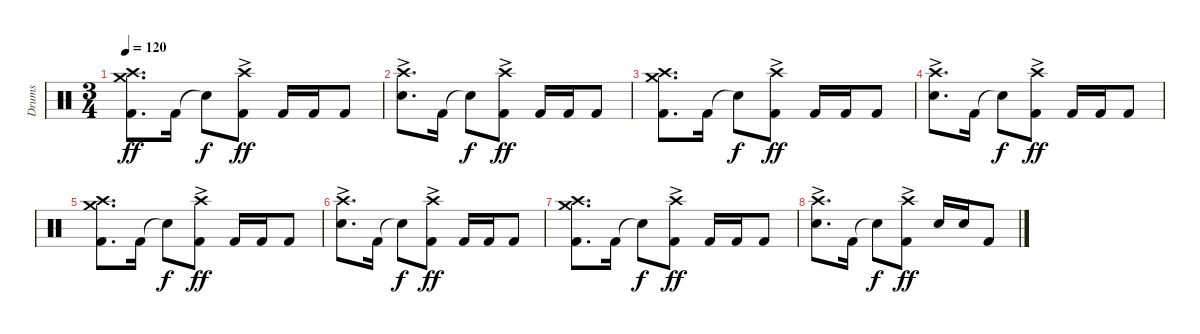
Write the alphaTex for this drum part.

\track ("Drums" "Drums") {instrument percussion}
\staff {score}
\articulation defaults
\ts (3 4)
\tempo 120
\clef neutral
\ks c
("Crash medium (hit)" "Crash high (hit)" "Kick (hit) 2").8{d dy ff} "Kick (hit) 2".16 "Snare (hit)"{t}.8{dy f} ("Crash high (hit)"{ac} "Kick (hit) 2").8{dy ff} "Kick (hit) 2".16 "Kick (hit) 2".16 "Kick (hit) 2".8 |
("Crash high (hit)"{ac} "Electric Snare (hit)").8{d} "Kick (hit) 2".16 "Snare (hit)"{t}.8{dy f} ("Crash high (hit)"{ac} "Kick (hit) 2").8{dy ff} "Kick (hit) 2".16 "Kick (hit) 2".16 "Kick (hit) 2".8 |
("Crash medium (hit)" "Crash high (hit)" "Kick (hit) 2").8{d} "Kick (hit) 2".16 "Snare (hit)"{t}.8{dy f} ("Crash high (hit)"{ac} "Kick (hit) 2").8{dy ff} "Kick (hit) 2".16 "Kick (hit) 2".16 "Kick (hit) 2".8 |
("Crash high (hit)"{ac} "Electric Snare (hit)").8{d} "Kick (hit) 2".16 "Snare (hit)"{t}.8{dy f} ("Crash high (hit)"{ac} "Kick (hit) 2").8{dy ff} "Kick (hit) 2".16 "Kick (hit) 2".16 "Kick (hit) 2".8 |
("Crash medium (hit)" "Crash high (hit)" "Kick (hit) 2").8{d} "Kick (hit) 2".16 "Snare (hit)"{t}.8{dy f} ("Crash high (hit)"{ac} "Kick (hit) 2").8{dy ff} "Kick (hit) 2".16 "Kick (hit) 2".16 "Kick (hit) 2".8 |
("Crash high (hit)"{ac} "Electric Snare (hit)").8{d} "Kick (hit) 2".16 "Snare (hit)"{t}.8{dy f} ("Crash high (hit)"{ac} "Kick (hit) 2").8{dy ff} "Kick (hit) 2".16 "Kick (hit) 2".16 "Kick (hit) 2".8 |
("Crash medium (hit)" "Crash high (hit)" "Kick (hit) 2").8{d} "Kick (hit) 2".16 "Snare (hit)"{t}.8{dy f} ("Crash high (hit)"{ac} "Kick (hit) 2").8{dy ff} "Kick (hit) 2".16 "Kick (hit) 2".16 "Kick (hit) 2".8 |
("Crash high (hit)"{ac} "Electric Snare (hit)").8{d} "Kick (hit) 2".16 "Snare (hit)"{t}.8{dy f} ("Crash high (hit)"{ac} "Kick (hit) 2").8{dy ff} "Electric Snare (hit)".16 "Electric Snare (hit)".16 "Kick (hit) 2".8
